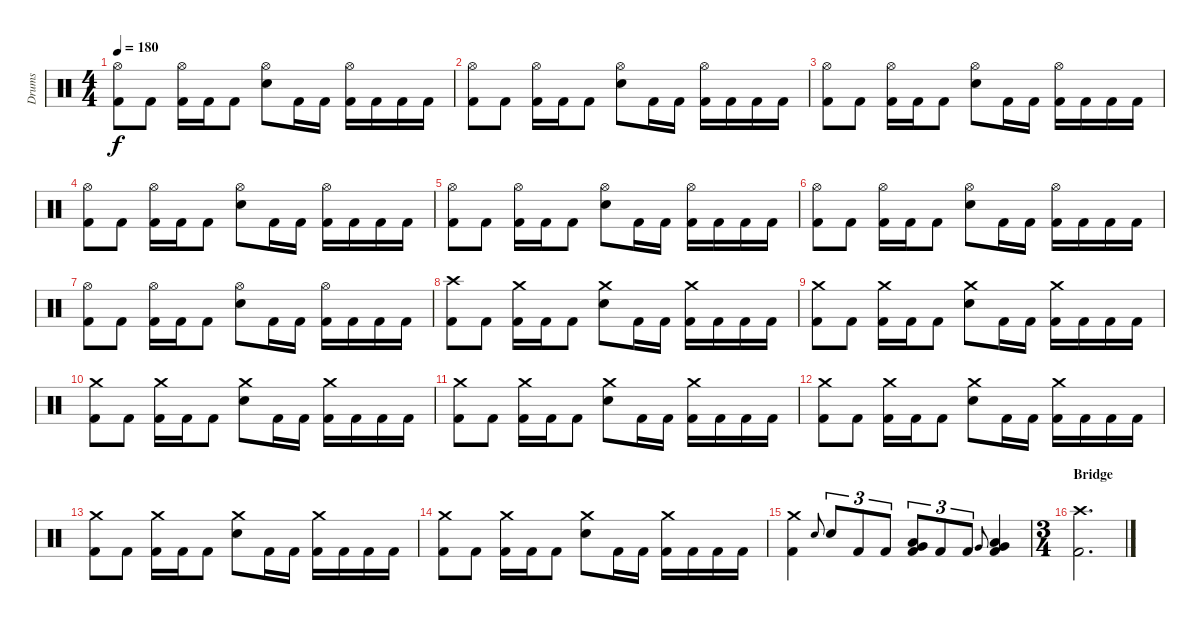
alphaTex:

\track ("Drums" "Drums") {instrument percussion}
\staff {score}
\articulation defaults
\ts (4 4)
\tempo 180
\clef neutral
\ks c
("Hi-Hat (open)" "Kick (hit) 2").8{dy f} "Kick (hit) 2".8 ("Hi-Hat (open)" "Kick (hit) 2").16 "Kick (hit) 2".16 "Kick (hit) 2".8 ("Hi-Hat (open)" "Electric Snare (hit)").8 "Kick (hit) 2".16 "Kick (hit) 2".16 ("Hi-Hat (open)" "Kick (hit) 2").16 "Kick (hit) 2".16 "Kick (hit) 2".16 "Kick (hit) 2".16 |
("Hi-Hat (open)" "Kick (hit) 2").8 "Kick (hit) 2".8 ("Hi-Hat (open)" "Kick (hit) 2").16 "Kick (hit) 2".16 "Kick (hit) 2".8 ("Hi-Hat (open)" "Electric Snare (hit)").8 "Kick (hit) 2".16 "Kick (hit) 2".16 ("Hi-Hat (open)" "Kick (hit) 2").16 "Kick (hit) 2".16 "Kick (hit) 2".16 "Kick (hit) 2".16 |
("Hi-Hat (open)" "Kick (hit) 2").8 "Kick (hit) 2".8 ("Hi-Hat (open)" "Kick (hit) 2").16 "Kick (hit) 2".16 "Kick (hit) 2".8 ("Hi-Hat (open)" "Electric Snare (hit)").8 "Kick (hit) 2".16 "Kick (hit) 2".16 ("Hi-Hat (open)" "Kick (hit) 2").16 "Kick (hit) 2".16 "Kick (hit) 2".16 "Kick (hit) 2".16 |
("Hi-Hat (open)" "Kick (hit) 2").8 "Kick (hit) 2".8 ("Hi-Hat (open)" "Kick (hit) 2").16 "Kick (hit) 2".16 "Kick (hit) 2".8 ("Hi-Hat (open)" "Electric Snare (hit)").8 "Kick (hit) 2".16 "Kick (hit) 2".16 ("Hi-Hat (open)" "Kick (hit) 2").16 "Kick (hit) 2".16 "Kick (hit) 2".16 "Kick (hit) 2".16 |
("Hi-Hat (open)" "Kick (hit) 2").8 "Kick (hit) 2".8 ("Hi-Hat (open)" "Kick (hit) 2").16 "Kick (hit) 2".16 "Kick (hit) 2".8 ("Hi-Hat (open)" "Electric Snare (hit)").8 "Kick (hit) 2".16 "Kick (hit) 2".16 ("Hi-Hat (open)" "Kick (hit) 2").16 "Kick (hit) 2".16 "Kick (hit) 2".16 "Kick (hit) 2".16 |
("Hi-Hat (open)" "Kick (hit) 2").8 "Kick (hit) 2".8 ("Hi-Hat (open)" "Kick (hit) 2").16 "Kick (hit) 2".16 "Kick (hit) 2".8 ("Hi-Hat (open)" "Electric Snare (hit)").8 "Kick (hit) 2".16 "Kick (hit) 2".16 ("Hi-Hat (open)" "Kick (hit) 2").16 "Kick (hit) 2".16 "Kick (hit) 2".16 "Kick (hit) 2".16 |
("Hi-Hat (open)" "Kick (hit) 2").8 "Kick (hit) 2".8 ("Hi-Hat (open)" "Kick (hit) 2").16 "Kick (hit) 2".16 "Kick (hit) 2".8 ("Hi-Hat (open)" "Electric Snare (hit)").8 "Kick (hit) 2".16 "Kick (hit) 2".16 ("Hi-Hat (open)" "Kick (hit) 2").16 "Kick (hit) 2".16 "Kick (hit) 2".16 "Kick (hit) 2".16 |
("Crash high (hit)" "Kick (hit) 2").8 "Kick (hit) 2".8 ("Crash medium (hit)" "Kick (hit) 2").16 "Kick (hit) 2".16 "Kick (hit) 2".8 ("Crash medium (hit)" "Electric Snare (hit)").8 "Kick (hit) 2".16 "Kick (hit) 2".16 ("Crash medium (hit)" "Kick (hit) 2").16 "Kick (hit) 2".16 "Kick (hit) 2".16 "Kick (hit) 2".16 |
("Crash medium (hit)" "Kick (hit) 2").8 "Kick (hit) 2".8 ("Crash medium (hit)" "Kick (hit) 2").16 "Kick (hit) 2".16 "Kick (hit) 2".8 ("Crash medium (hit)" "Electric Snare (hit)").8 "Kick (hit) 2".16 "Kick (hit) 2".16 ("Crash medium (hit)" "Kick (hit) 2").16 "Kick (hit) 2".16 "Kick (hit) 2".16 "Kick (hit) 2".16 |
("Crash medium (hit)" "Kick (hit) 2").8 "Kick (hit) 2".8 ("Crash medium (hit)" "Kick (hit) 2").16 "Kick (hit) 2".16 "Kick (hit) 2".8 ("Crash medium (hit)" "Electric Snare (hit)").8 "Kick (hit) 2".16 "Kick (hit) 2".16 ("Crash medium (hit)" "Kick (hit) 2").16 "Kick (hit) 2".16 "Kick (hit) 2".16 "Kick (hit) 2".16 |
("Crash medium (hit)" "Kick (hit) 2").8 "Kick (hit) 2".8 ("Crash medium (hit)" "Kick (hit) 2").16 "Kick (hit) 2".16 "Kick (hit) 2".8 ("Crash medium (hit)" "Electric Snare (hit)").8 "Kick (hit) 2".16 "Kick (hit) 2".16 ("Crash medium (hit)" "Kick (hit) 2").16 "Kick (hit) 2".16 "Kick (hit) 2".16 "Kick (hit) 2".16 |
("Crash medium (hit)" "Kick (hit) 2").8 "Kick (hit) 2".8 ("Crash medium (hit)" "Kick (hit) 2").16 "Kick (hit) 2".16 "Kick (hit) 2".8 ("Crash medium (hit)" "Electric Snare (hit)").8 "Kick (hit) 2".16 "Kick (hit) 2".16 ("Crash medium (hit)" "Kick (hit) 2").16 "Kick (hit) 2".16 "Kick (hit) 2".16 "Kick (hit) 2".16 |
("Crash medium (hit)" "Kick (hit) 2").8 "Kick (hit) 2".8 ("Crash medium (hit)" "Kick (hit) 2").16 "Kick (hit) 2".16 "Kick (hit) 2".8 ("Crash medium (hit)" "Electric Snare (hit)").8 "Kick (hit) 2".16 "Kick (hit) 2".16 ("Crash medium (hit)" "Kick (hit) 2").16 "Kick (hit) 2".16 "Kick (hit) 2".16 "Kick (hit) 2".16 |
("Crash medium (hit)" "Kick (hit) 2").8 "Kick (hit) 2".8 ("Crash medium (hit)" "Kick (hit) 2").16 "Kick (hit) 2".16 "Kick (hit) 2".8 ("Crash medium (hit)" "Electric Snare (hit)").8 "Kick (hit) 2".16 "Kick (hit) 2".16 ("Crash medium (hit)" "Kick (hit) 2").16 "Kick (hit) 2".16 "Kick (hit) 2".16 "Kick (hit) 2".16 |
("Crash medium (hit)" "Kick (hit) 2").4 "Electric Snare (hit)".8{gr onbeat} "Electric Snare (hit)".8{tu (3 2)} "Kick (hit) 2".8{tu (3 2)} "Kick (hit) 2".8{tu (3 2)} ("Low Tom (hit)" "Very Low Tom (hit)" "Kick (hit) 2").8{tu (3 2)} "Kick (hit) 2".8{tu (3 2)} "Kick (hit) 2".8{tu (3 2)} "Very Low Tom (hit)".8{gr onbeat} ("Very Low Tom (hit)" "Low Floor Tom (hit)" "Kick (hit) 2").4 |
\ts (3 4)
\section ("" "Bridge")
("Crash high (hit)" "Kick (hit) 2").2{d}
